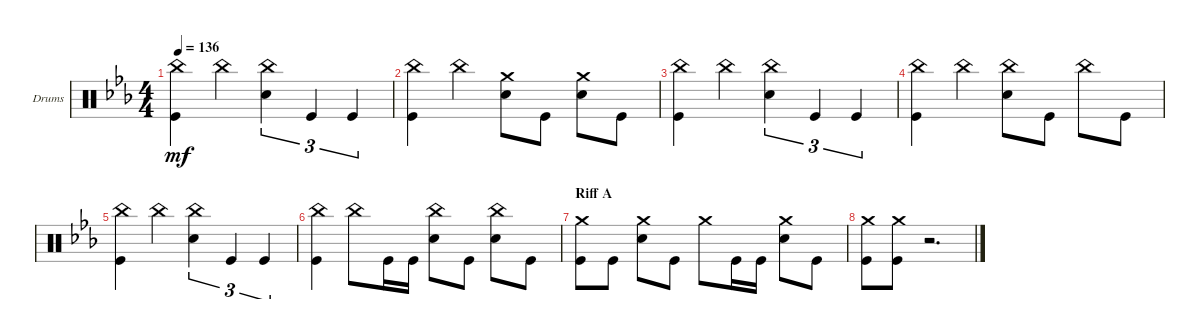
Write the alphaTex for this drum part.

\defaultSystemsLayout 4
\bracketExtendMode groupsimilarinstruments
\firstSystemTrackNameOrientation horizontal
\otherSystemsTrackNameOrientation horizontal
\track ("Drumkit" "Drums") {instrument percussion}
\staff {score}
\articulation defaults
\ts (4 4)
\tempo 136
\clef neutral
\ks cminor
("Kick (hit)" "China (hit)").4{dy mf} "China (hit)".4 ("Snare (hit) 2" "China (hit)").4{tu (3 2)} "Kick (hit)".4{tu (3 2)} "Kick (hit)".4{tu (3 2)} |
("Kick (hit)" "China (hit)").4 "China (hit)".4 ("Crash medium (hit)" "Snare (hit) 2").8 "Kick (hit)".8 ("Snare (hit) 2" "Crash medium (hit)").8 "Kick (hit)".8 |
("Kick (hit)" "China (hit)").4 "China (hit)".4 ("Snare (hit) 2" "China (hit)").4{tu (3 2)} "Kick (hit)".4{tu (3 2)} "Kick (hit)".4{tu (3 2)} |
("Kick (hit)" "China (hit)").4 "China (hit)".4 ("Snare (hit) 2" "China (hit)").8 "Kick (hit)".8 "China (hit)".8 "Kick (hit)".8 |
("Kick (hit)" "China (hit)").4 "China (hit)".4 ("Snare (hit) 2" "China (hit)").4{tu (3 2)} "Kick (hit)".4{tu (3 2)} "Kick (hit)".4{tu (3 2)} |
("Kick (hit)" "China (hit)").4 "China (hit)".8 "Kick (hit)".16 "Kick (hit)".16 ("Snare (hit) 2" "China (hit)").8 "Kick (hit)".8 ("Snare (hit) 2" "China (hit)").8 "Kick (hit)".8 |
\section ("" "Riff A")
("Kick (hit)" "Crash medium (hit)").8 "Kick (hit)".8 ("Snare (hit) 2" "Crash medium (hit)").8 "Kick (hit)".8 "Crash medium (hit)".8 "Kick (hit)".16 "Kick (hit)".16 ("Snare (hit) 2" "Crash medium (hit)").8 "Kick (hit)".8 |
("Kick (hit)" "Crash medium (hit)").8 ("Kick (hit)" "Crash medium (hit)").8 r.2{d}
